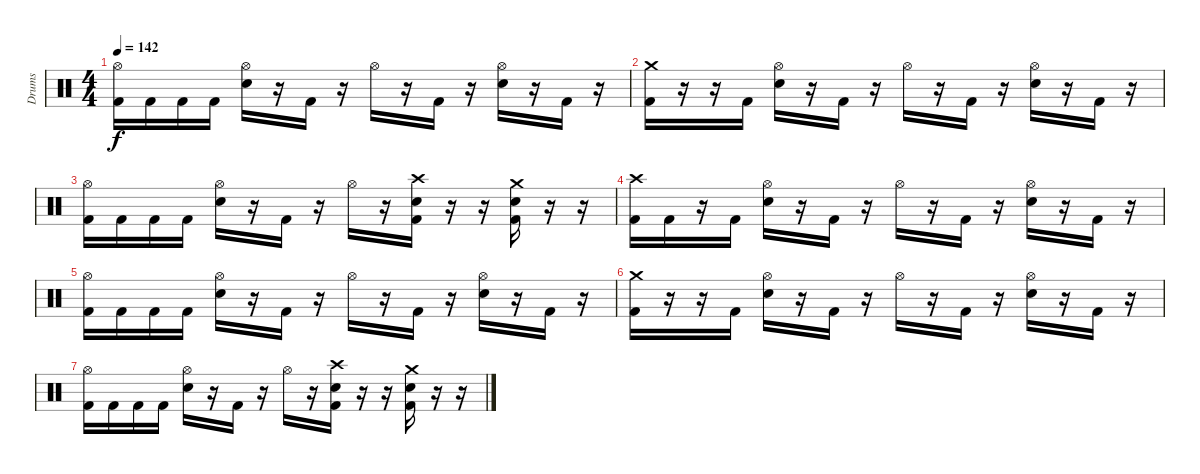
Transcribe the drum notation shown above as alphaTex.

\track ("Drums" "Drums") {instrument percussion}
\staff
\articulation defaults
\ts (4 4)
\tempo 142
\clef neutral
\ks c
("Hi-Hat (open)" "Kick (hit) 2").16{dy f} "Kick (hit) 2".16 "Kick (hit) 2".16 "Kick (hit) 2".16 ("Hi-Hat (open)" "Electric Snare (hit)").16 r.16 "Kick (hit) 2".16 r.16 "Hi-Hat (open)".16 r.16 "Kick (hit) 2".16 r.16 ("Hi-Hat (open)" "Electric Snare (hit)").16 r.16 "Kick (hit) 2".16 r.16 |
("Crash medium (hit)" "Kick (hit) 2").16 r.16 r.16 "Kick (hit) 2".16 ("Hi-Hat (open)" "Electric Snare (hit)").16 r.16 "Kick (hit) 2".16 r.16 "Hi-Hat (open)".16 r.16 "Kick (hit) 2".16 r.16 ("Hi-Hat (open)" "Electric Snare (hit)").16 r.16 "Kick (hit) 2".16 r.16 |
("Hi-Hat (open)" "Kick (hit) 2").16 "Kick (hit) 2".16 "Kick (hit) 2".16 "Kick (hit) 2".16 ("Hi-Hat (open)" "Electric Snare (hit)").16 r.16 "Kick (hit) 2".16 r.16 "Hi-Hat (open)".16 r.16 ("Crash high (hit)" "Electric Snare (hit)" "Kick (hit) 2").16 r.16 r.16 ("Crash medium (hit)" "Electric Snare (hit)" "Kick (hit) 2").16 r.16 r.16 |
("Crash high (hit)" "Kick (hit) 2").16 "Kick (hit) 2".16 r.16 "Kick (hit) 2".16 ("Hi-Hat (open)" "Electric Snare (hit)").16 r.16 "Kick (hit) 2".16 r.16 "Hi-Hat (open)".16 r.16 "Kick (hit) 2".16 r.16 ("Hi-Hat (open)" "Electric Snare (hit)").16 r.16 "Kick (hit) 2".16 r.16 |
("Hi-Hat (open)" "Kick (hit) 2").16 "Kick (hit) 2".16 "Kick (hit) 2".16 "Kick (hit) 2".16 ("Hi-Hat (open)" "Electric Snare (hit)").16 r.16 "Kick (hit) 2".16 r.16 "Hi-Hat (open)".16 r.16 "Kick (hit) 2".16 r.16 ("Hi-Hat (open)" "Electric Snare (hit)").16 r.16 "Kick (hit) 2".16 r.16 |
("Crash medium (hit)" "Kick (hit) 2").16 r.16 r.16 "Kick (hit) 2".16 ("Hi-Hat (open)" "Electric Snare (hit)").16 r.16 "Kick (hit) 2".16 r.16 "Hi-Hat (open)".16 r.16 "Kick (hit) 2".16 r.16 ("Hi-Hat (open)" "Electric Snare (hit)").16 r.16 "Kick (hit) 2".16 r.16 |
("Hi-Hat (open)" "Kick (hit) 2").16 "Kick (hit) 2".16 "Kick (hit) 2".16 "Kick (hit) 2".16 ("Hi-Hat (open)" "Electric Snare (hit)").16 r.16 "Kick (hit) 2".16 r.16 "Hi-Hat (open)".16 r.16 ("Crash high (hit)" "Electric Snare (hit)" "Kick (hit) 2").16 r.16 r.16 ("Crash medium (hit)" "Electric Snare (hit)" "Kick (hit) 2").16 r.16 r.16
